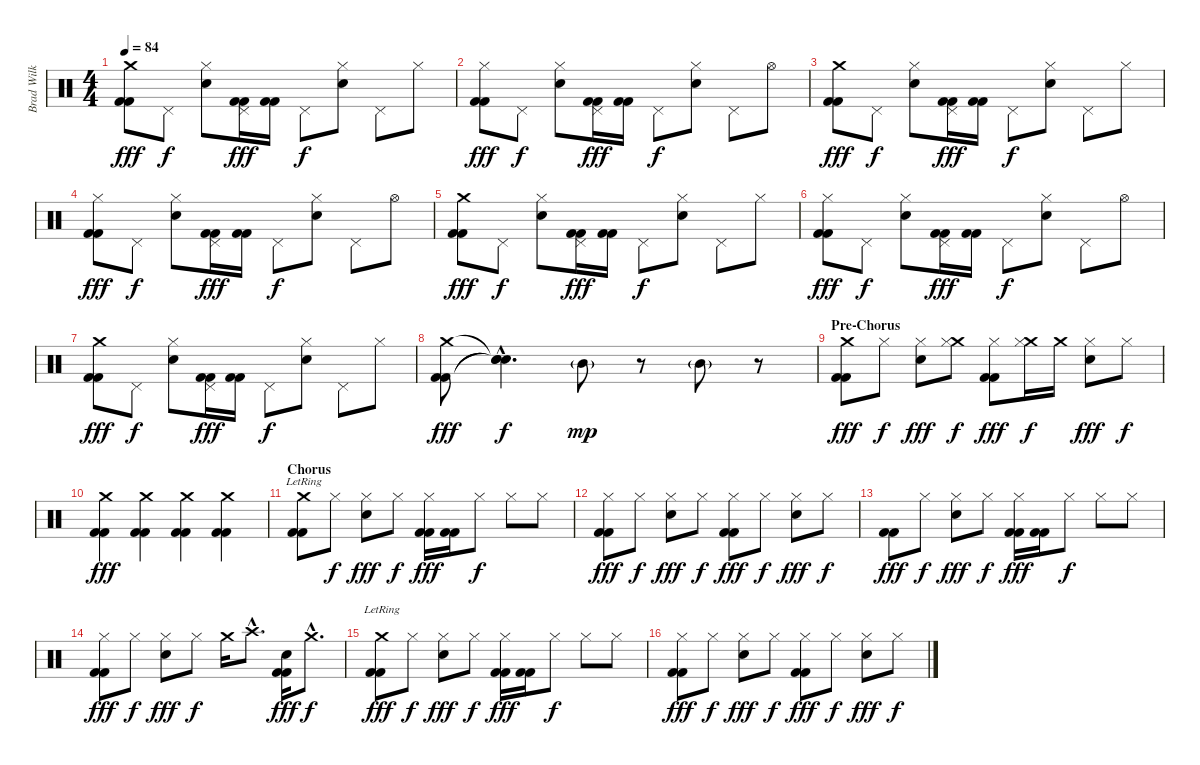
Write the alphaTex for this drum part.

\track ("Brad Wilk" "Brad Wilk") {instrument percussion}
\staff {score}
\articulation defaults
\ts (4 4)
\tempo 84
\clef neutral
\ks c
("Crash medium (hit)" "Kick (hit) 2" "Kick (hit) 2").8{dy fff} "Pedal Hi-Hat (hit)".8{dy f} ("Hi-Hat (closed)" "Snare (hit) 2").8 ("Pedal Hi-Hat (hit)" "Kick (hit) 2" "Kick (hit) 2").16{dy fff} ("Kick (hit) 2" "Kick (hit) 2").16 "Pedal Hi-Hat (hit)".8{dy f} ("Hi-Hat (closed)" "Snare (hit) 2").8 "Pedal Hi-Hat (hit)".8 "Hi-Hat (closed)".8 |
("Hi-Hat (closed)" "Kick (hit) 2" "Kick (hit) 2").8{dy fff} "Pedal Hi-Hat (hit)".8{dy f} ("Hi-Hat (closed)" "Snare (hit) 2").8 ("Pedal Hi-Hat (hit)" "Kick (hit) 2" "Kick (hit) 2").16{dy fff} ("Kick (hit) 2" "Kick (hit) 2").16 "Pedal Hi-Hat (hit)".8{dy f} ("Hi-Hat (closed)" "Snare (hit) 2").8 "Pedal Hi-Hat (hit)".8 "Hi-Hat (open)".8 |
("Crash medium (hit)" "Kick (hit) 2" "Kick (hit) 2").8{dy fff} "Pedal Hi-Hat (hit)".8{dy f} ("Hi-Hat (closed)" "Snare (hit) 2").8 ("Pedal Hi-Hat (hit)" "Kick (hit) 2" "Kick (hit) 2").16{dy fff} ("Kick (hit) 2" "Kick (hit) 2").16 "Pedal Hi-Hat (hit)".8{dy f} ("Hi-Hat (closed)" "Snare (hit) 2").8 "Pedal Hi-Hat (hit)".8 "Hi-Hat (closed)".8 |
("Hi-Hat (closed)" "Kick (hit) 2" "Kick (hit) 2").8{dy fff} "Pedal Hi-Hat (hit)".8{dy f} ("Hi-Hat (closed)" "Snare (hit) 2").8 ("Pedal Hi-Hat (hit)" "Kick (hit) 2" "Kick (hit) 2").16{dy fff} ("Kick (hit) 2" "Kick (hit) 2").16 "Pedal Hi-Hat (hit)".8{dy f} ("Hi-Hat (closed)" "Snare (hit) 2").8 "Pedal Hi-Hat (hit)".8 "Hi-Hat (open)".8 |
("Crash medium (hit)" "Kick (hit) 2" "Kick (hit) 2").8{dy fff} "Pedal Hi-Hat (hit)".8{dy f} ("Hi-Hat (closed)" "Snare (hit) 2").8 ("Pedal Hi-Hat (hit)" "Kick (hit) 2" "Kick (hit) 2").16{dy fff} ("Kick (hit) 2" "Kick (hit) 2").16 "Pedal Hi-Hat (hit)".8{dy f} ("Hi-Hat (closed)" "Snare (hit) 2").8 "Pedal Hi-Hat (hit)".8 "Hi-Hat (closed)".8 |
("Hi-Hat (closed)" "Kick (hit) 2" "Kick (hit) 2").8{dy fff} "Pedal Hi-Hat (hit)".8{dy f} ("Hi-Hat (closed)" "Snare (hit) 2").8 ("Pedal Hi-Hat (hit)" "Kick (hit) 2" "Kick (hit) 2").16{dy fff} ("Kick (hit) 2" "Kick (hit) 2").16 "Pedal Hi-Hat (hit)".8{dy f} ("Hi-Hat (closed)" "Snare (hit) 2").8 "Pedal Hi-Hat (hit)".8 "Hi-Hat (open)".8 |
("Crash medium (hit)" "Kick (hit) 2" "Kick (hit) 2").8{dy fff} "Pedal Hi-Hat (hit)".8{dy f} ("Hi-Hat (closed)" "Snare (hit) 2").8 ("Pedal Hi-Hat (hit)" "Kick (hit) 2" "Kick (hit) 2").16{dy fff} ("Kick (hit) 2" "Kick (hit) 2").16 "Pedal Hi-Hat (hit)".8{dy f} ("Hi-Hat (closed)" "Snare (hit) 2").8 "Pedal Hi-Hat (hit)".8 "Hi-Hat (closed)".8 |
("Crash medium (hit)" "Kick (hit) 2" "Kick (hit) 2").8{dy fff} ("Snare (hit)"{hac t} "Snare (hit)"{hac t} "Snare (hit)"{hac t}).4{d dy f} "Mid Tom (hit)"{g}.8{dy mp} r.8 "Mid Tom (hit)"{g}.8 r.8 |
\section ("" "Pre-Chorus")
("Crash medium (hit)" "Kick (hit) 2" "Kick (hit) 2").8{dy fff} "Hi-Hat (closed)".8{dy f} ("Hi-Hat (closed)" "Snare (hit) 2").8{dy fff} ("Crash medium (hit)" "Hi-Hat (closed)").8{dy f} ("Hi-Hat (closed)" "Kick (hit) 2" "Kick (hit) 2").8{dy fff} ("Crash medium (hit)" "Hi-Hat (closed)").16{dy f} "Crash medium (hit)".16 ("Hi-Hat (closed)" "Snare (hit) 2").8{dy fff} "Hi-Hat (closed)".8{dy f} |
("Crash medium (hit)" "Kick (hit) 2" "Kick (hit) 2").4{dy fff} ("Crash medium (hit)" "Kick (hit) 2" "Kick (hit) 2").4 ("Crash medium (hit)" "Kick (hit) 2" "Kick (hit) 2").4 ("Crash medium (hit)" "Kick (hit) 2" "Kick (hit) 2").4 |
\section ("" "Chorus")
("Crash medium (hit)"{lr} "Kick (hit) 2" "Kick (hit) 2").8 "Hi-Hat (closed)".8{dy f} ("Hi-Hat (closed)" "Snare (hit) 2").8{dy fff} "Hi-Hat (closed)".8{dy f} ("Hi-Hat (closed)" "Kick (hit) 2" "Kick (hit) 2").16{dy fff} ("Kick (hit) 2" "Kick (hit) 2").16 "Hi-Hat (closed)".8{dy f} "Hi-Hat (closed)".8 "Hi-Hat (closed)".8 |
("Hi-Hat (closed)" "Kick (hit) 2" "Kick (hit) 2").8{dy fff} "Hi-Hat (closed)".8{dy f} ("Hi-Hat (closed)" "Snare (hit) 2").8{dy fff} "Hi-Hat (closed)".8{dy f} ("Hi-Hat (closed)" "Kick (hit) 2" "Kick (hit) 2").8{dy fff} "Hi-Hat (closed)".8{dy f} ("Hi-Hat (closed)" "Snare (hit) 2").8{dy fff} "Hi-Hat (closed)".8{dy f} |
("Kick (hit) 2" "Kick (hit) 2").8{dy fff} "Hi-Hat (closed)".8{dy f} ("Hi-Hat (closed)" "Snare (hit) 2").8{dy fff} "Hi-Hat (closed)".8{dy f} ("Hi-Hat (closed)" "Kick (hit) 2" "Kick (hit) 2").16{dy fff} ("Kick (hit) 2" "Kick (hit) 2").16 "Hi-Hat (closed)".8{dy f} "Hi-Hat (closed)".8 "Hi-Hat (closed)".8 |
("Hi-Hat (closed)" "Kick (hit) 2" "Kick (hit) 2").8{dy fff} "Hi-Hat (closed)".8{dy f} ("Hi-Hat (closed)" "Snare (hit) 2").8{dy fff} "Hi-Hat (closed)".8{dy f} "Crash medium (hit)".16 "Crash high (hit)"{hac}.8{d} ("Electric Snare (hit)" "Kick (hit) 2" "Kick (hit) 2").16{dy fff} "Crash medium (hit)"{hac}.8{d dy f} |
("Crash medium (hit)"{lr} "Kick (hit) 2" "Kick (hit) 2").8{dy fff} "Hi-Hat (closed)".8{dy f} ("Hi-Hat (closed)" "Snare (hit) 2").8{dy fff} "Hi-Hat (closed)".8{dy f} ("Hi-Hat (closed)" "Kick (hit) 2" "Kick (hit) 2").16{dy fff} ("Kick (hit) 2" "Kick (hit) 2").16 "Hi-Hat (closed)".8{dy f} "Hi-Hat (closed)".8 "Hi-Hat (closed)".8 |
("Hi-Hat (closed)" "Kick (hit) 2" "Kick (hit) 2").8{dy fff} "Hi-Hat (closed)".8{dy f} ("Hi-Hat (closed)" "Snare (hit) 2").8{dy fff} "Hi-Hat (closed)".8{dy f} ("Hi-Hat (closed)" "Kick (hit) 2" "Kick (hit) 2").8{dy fff} "Hi-Hat (closed)".8{dy f} ("Hi-Hat (closed)" "Snare (hit) 2").8{dy fff} "Hi-Hat (closed)".8{dy f}
